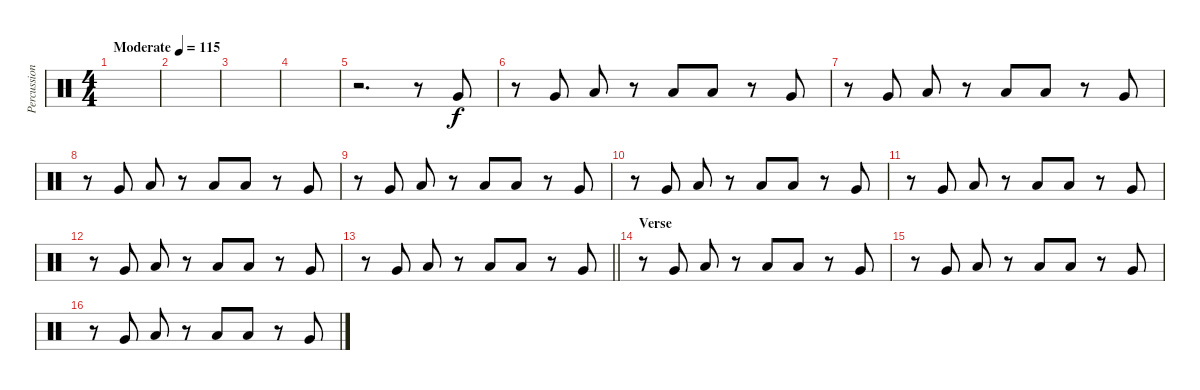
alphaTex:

\track ("Percussion" "Percussion") {instrument percussion}
\staff {score}
\articulation defaults
\ts (4 4)
\tempo (115 "Moderate")
\clef neutral
\ks c
|
|
|
|
r.2{d} r.8 "Very Low Tom (hit)".8 |
r.8 "Very Low Tom (hit)".8 "Low Tom (hit)".8 r.8 "Low Tom (hit)".8 "Low Tom (hit)".8 r.8 "Very Low Tom (hit)".8 |
r.8 "Very Low Tom (hit)".8 "Low Tom (hit)".8 r.8 "Low Tom (hit)".8 "Low Tom (hit)".8 r.8 "Very Low Tom (hit)".8 |
r.8 "Very Low Tom (hit)".8 "Low Tom (hit)".8 r.8 "Low Tom (hit)".8 "Low Tom (hit)".8 r.8 "Very Low Tom (hit)".8 |
r.8 "Very Low Tom (hit)".8 "Low Tom (hit)".8 r.8 "Low Tom (hit)".8 "Low Tom (hit)".8 r.8 "Very Low Tom (hit)".8 |
r.8 "Very Low Tom (hit)".8 "Low Tom (hit)".8 r.8 "Low Tom (hit)".8 "Low Tom (hit)".8 r.8 "Very Low Tom (hit)".8 |
r.8 "Very Low Tom (hit)".8 "Low Tom (hit)".8 r.8 "Low Tom (hit)".8 "Low Tom (hit)".8 r.8 "Very Low Tom (hit)".8 |
r.8 "Very Low Tom (hit)".8 "Low Tom (hit)".8 r.8 "Low Tom (hit)".8 "Low Tom (hit)".8 r.8 "Very Low Tom (hit)".8 |
\barLineRight lightlight
r.8 "Very Low Tom (hit)".8 "Low Tom (hit)".8 r.8 "Low Tom (hit)".8 "Low Tom (hit)".8 r.8 "Very Low Tom (hit)".8 |
\section ("" "Verse")
r.8 "Very Low Tom (hit)".8 "Low Tom (hit)".8 r.8 "Low Tom (hit)".8 "Low Tom (hit)".8 r.8 "Very Low Tom (hit)".8 |
r.8 "Very Low Tom (hit)".8 "Low Tom (hit)".8 r.8 "Low Tom (hit)".8 "Low Tom (hit)".8 r.8 "Very Low Tom (hit)".8 |
r.8 "Very Low Tom (hit)".8 "Low Tom (hit)".8 r.8 "Low Tom (hit)".8 "Low Tom (hit)".8 r.8 "Very Low Tom (hit)".8
